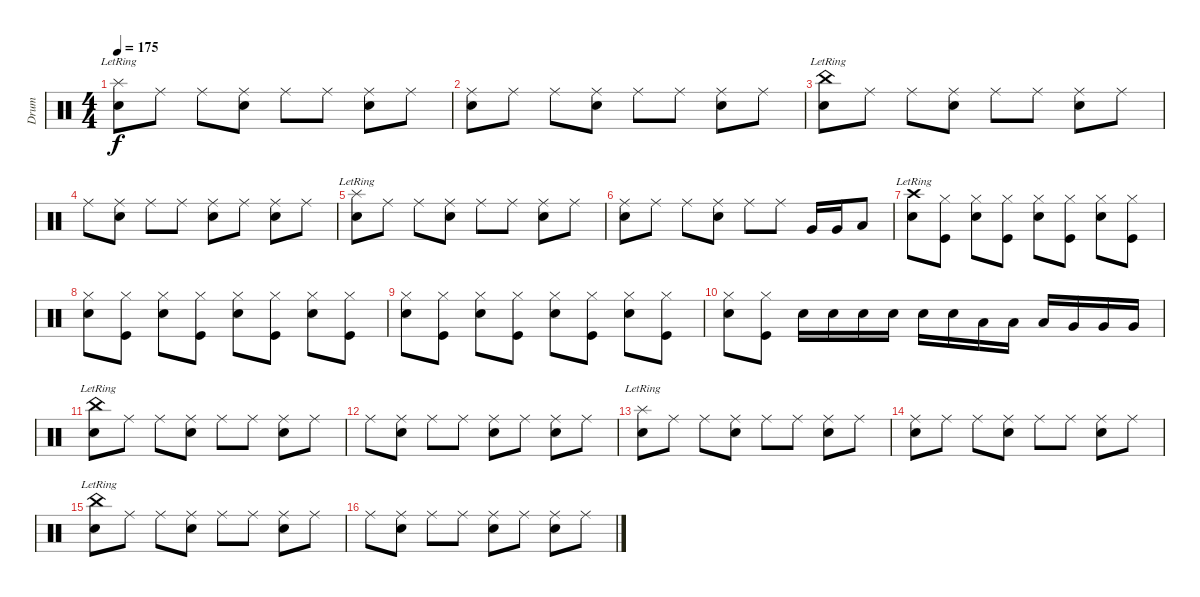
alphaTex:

\track ("Drum" "Drum") {instrument percussion}
\staff {score}
\articulation defaults
\ts (4 4)
\tempo 175
\clef neutral
\ks c
("Splash (hit)"{lr} "Snare (hit) 2").8{dy f} "Ride (middle)".8 "Ride (middle)".8 ("Ride (middle)" "Snare (hit) 2").8 "Ride (middle)".8 "Ride (middle)".8 ("Ride (middle)" "Snare (hit) 2").8 "Ride (middle)".8 |
("Ride (middle)" "Snare (hit) 2").8 "Ride (middle)".8 "Ride (middle)".8 ("Ride (middle)" "Snare (hit) 2").8 "Ride (middle)".8 "Ride (middle)".8 ("Ride (middle)" "Snare (hit) 2").8 "Ride (middle)".8 |
("China (hit)"{lr} "Snare (hit) 2").8 "Ride (middle)".8 "Ride (middle)".8 ("Ride (middle)" "Snare (hit) 2").8 "Ride (middle)".8 "Ride (middle)".8 ("Ride (middle)" "Snare (hit) 2").8 "Ride (middle)".8 |
"Ride (middle)".8 ("Ride (middle)" "Snare (hit) 2").8 "Ride (middle)".8 "Ride (middle)".8 ("Ride (middle)" "Snare (hit) 2").8 "Ride (middle)".8 ("Ride (middle)" "Snare (hit) 2").8 "Ride (middle)".8 |
("Splash (hit)"{lr} "Snare (hit) 2").8 "Ride (middle)".8 "Ride (middle)".8 ("Ride (middle)" "Snare (hit) 2").8 "Ride (middle)".8 "Ride (middle)".8 ("Ride (middle)" "Snare (hit) 2").8 "Ride (middle)".8 |
("Ride (middle)" "Snare (hit) 2").8 "Ride (middle)".8 "Ride (middle)".8 ("Ride (middle)" "Snare (hit) 2").8 "Ride (middle)".8 "Ride (middle)".8 "Very Low Tom (hit)".16 "Very Low Tom (hit)".16 "Low Floor Tom (hit)".8 |
("Crash high (hit)"{lr} "Snare (hit) 2").8 ("Hi-Hat (closed)" "Kick (hit)").8 ("Hi-Hat (closed)" "Snare (hit) 2").8 ("Hi-Hat (closed)" "Kick (hit)").8 ("Hi-Hat (closed)" "Snare (hit) 2").8 ("Hi-Hat (closed)" "Kick (hit)").8 ("Hi-Hat (closed)" "Snare (hit) 2").8 ("Hi-Hat (closed)" "Kick (hit)").8 |
("Hi-Hat (closed)" "Snare (hit) 2").8 ("Hi-Hat (closed)" "Kick (hit)").8 ("Hi-Hat (closed)" "Snare (hit) 2").8 ("Hi-Hat (closed)" "Kick (hit)").8 ("Hi-Hat (closed)" "Snare (hit) 2").8 ("Hi-Hat (closed)" "Kick (hit)").8 ("Hi-Hat (closed)" "Snare (hit) 2").8 ("Hi-Hat (closed)" "Kick (hit)").8 |
("Hi-Hat (closed)" "Snare (hit) 2").8 ("Hi-Hat (closed)" "Kick (hit)").8 ("Hi-Hat (closed)" "Snare (hit) 2").8 ("Hi-Hat (closed)" "Kick (hit)").8 ("Hi-Hat (closed)" "Snare (hit) 2").8 ("Hi-Hat (closed)" "Kick (hit)").8 ("Hi-Hat (closed)" "Snare (hit) 2").8 ("Hi-Hat (closed)" "Kick (hit)").8 |
("Hi-Hat (closed)" "Snare (hit) 2").8 ("Hi-Hat (closed)" "Kick (hit)").8 "Snare (hit) 2".16 "Snare (hit) 2".16 "Snare (hit) 2".16 "Snare (hit) 2".16 "Snare (hit) 2".16 "Snare (hit) 2".16 "Low Tom (hit)".16 "Low Tom (hit)".16 "Low Tom (hit)".16 "Very Low Tom (hit)".16 "Very Low Tom (hit)".16 "Very Low Tom (hit)".16 |
("China (hit)"{lr} "Snare (hit) 2").8 "Ride (middle)".8 "Ride (middle)".8 ("Ride (middle)" "Snare (hit) 2").8 "Ride (middle)".8 "Ride (middle)".8 ("Ride (middle)" "Snare (hit) 2").8 "Ride (middle)".8 |
"Ride (middle)".8 ("Ride (middle)" "Snare (hit) 2").8 "Ride (middle)".8 "Ride (middle)".8 ("Ride (middle)" "Snare (hit) 2").8 "Ride (middle)".8 ("Ride (middle)" "Snare (hit) 2").8 "Ride (middle)".8 |
("Splash (hit)"{lr} "Snare (hit) 2").8 "Ride (middle)".8 "Ride (middle)".8 ("Ride (middle)" "Snare (hit) 2").8 "Ride (middle)".8 "Ride (middle)".8 ("Ride (middle)" "Snare (hit) 2").8 "Ride (middle)".8 |
("Ride (middle)" "Snare (hit) 2").8 "Ride (middle)".8 "Ride (middle)".8 ("Ride (middle)" "Snare (hit) 2").8 "Ride (middle)".8 "Ride (middle)".8 ("Ride (middle)" "Snare (hit) 2").8 "Ride (middle)".8 |
("China (hit)"{lr} "Snare (hit) 2").8 "Ride (middle)".8 "Ride (middle)".8 ("Ride (middle)" "Snare (hit) 2").8 "Ride (middle)".8 "Ride (middle)".8 ("Ride (middle)" "Snare (hit) 2").8 "Ride (middle)".8 |
"Ride (middle)".8 ("Ride (middle)" "Snare (hit) 2").8 "Ride (middle)".8 "Ride (middle)".8 ("Ride (middle)" "Snare (hit) 2").8 "Ride (middle)".8 ("Ride (middle)" "Snare (hit) 2").8 "Ride (middle)".8
